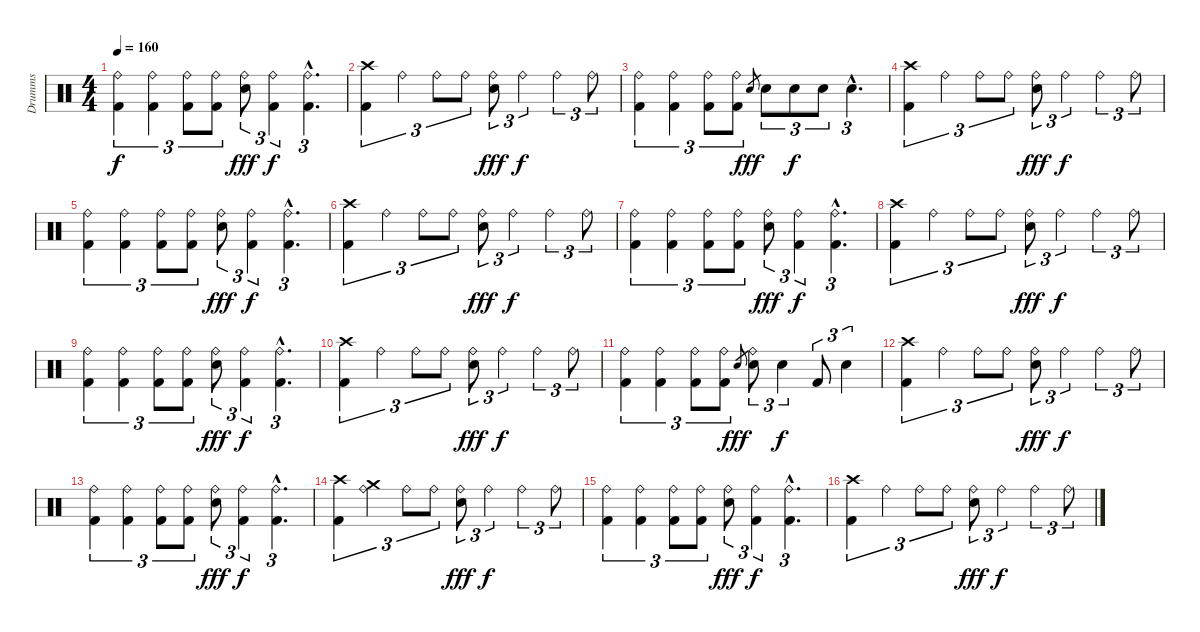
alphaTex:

\track ("Drumms" "Drumms") {instrument percussion}
\staff {score}
\articulation defaults
\ts (4 4)
\tempo 160
\clef neutral
\ks c
("Ride (bell)" "Kick (hit) 2").4{tu (3 2) dy f} ("Ride (bell)" "Kick (hit) 2").4{tu (3 2)} ("Ride (bell)" "Kick (hit) 2").8{tu (3 2)} ("Ride (bell)" "Kick (hit) 2").8{tu (3 2)} ("Ride (bell)" "Snare (hit) 2").8{tu (3 2) dy fff} ("Ride (bell)" "Kick (hit) 2").4{tu (3 2) dy f} ("Ride (bell)" "Kick (hit) 2"{hac}).4{d tu (3 2)} |
("Crash high (hit)" "Kick (hit) 2").4{tu (3 2)} "Ride (bell)".4{tu (3 2)} "Ride (bell)".8{tu (3 2)} "Ride (bell)".8{tu (3 2)} ("Ride (bell)" "Snare (hit) 2").8{tu (3 2) dy fff} "Ride (bell)".4{tu (3 2) dy f} "Ride (bell)".4{tu (3 2)} "Ride (bell)".8{tu (3 2)} |
("Ride (bell)" "Kick (hit) 2").4{tu (3 2)} ("Ride (bell)" "Kick (hit) 2").4{tu (3 2)} ("Ride (bell)" "Kick (hit) 2").8{tu (3 2)} ("Ride (bell)" "Kick (hit) 2").8{tu (3 2)} "Snare (hit) 2".8{gr dy fff} "Snare (hit) 2".8{tu (3 2)} "Snare (hit) 2".8{tu (3 2) dy f} "Snare (hit) 2".8{tu (3 2)} "Snare (hit) 2"{hac}.4{d tu (3 2)} |
\section ("" "")
("Crash high (hit)" "Kick (hit) 2").4{tu (3 2)} "Ride (bell)".4{tu (3 2)} "Ride (bell)".8{tu (3 2)} "Ride (bell)".8{tu (3 2)} ("Ride (bell)" "Snare (hit) 2").8{tu (3 2) dy fff} "Ride (bell)".4{tu (3 2) dy f} "Ride (bell)".4{tu (3 2)} "Ride (bell)".8{tu (3 2)} |
("Ride (bell)" "Kick (hit) 2").4{tu (3 2)} ("Ride (bell)" "Kick (hit) 2").4{tu (3 2)} ("Ride (bell)" "Kick (hit) 2").8{tu (3 2)} ("Ride (bell)" "Kick (hit) 2").8{tu (3 2)} ("Ride (bell)" "Snare (hit) 2").8{tu (3 2) dy fff} ("Ride (bell)" "Kick (hit) 2").4{tu (3 2) dy f} ("Ride (bell)" "Kick (hit) 2"{hac}).4{d tu (3 2)} |
("Crash high (hit)" "Kick (hit) 2").4{tu (3 2)} "Ride (bell)".4{tu (3 2)} "Ride (bell)".8{tu (3 2)} "Ride (bell)".8{tu (3 2)} ("Ride (bell)" "Snare (hit) 2").8{tu (3 2) dy fff} "Ride (bell)".4{tu (3 2) dy f} "Ride (bell)".4{tu (3 2)} "Ride (bell)".8{tu (3 2)} |
("Ride (bell)" "Kick (hit) 2").4{tu (3 2)} ("Ride (bell)" "Kick (hit) 2").4{tu (3 2)} ("Ride (bell)" "Kick (hit) 2").8{tu (3 2)} ("Ride (bell)" "Kick (hit) 2").8{tu (3 2)} ("Ride (bell)" "Snare (hit) 2").8{tu (3 2) dy fff} ("Ride (bell)" "Kick (hit) 2").4{tu (3 2) dy f} ("Ride (bell)" "Kick (hit) 2"{hac}).4{d tu (3 2)} |
("Crash high (hit)" "Kick (hit) 2").4{tu (3 2)} "Ride (bell)".4{tu (3 2)} "Ride (bell)".8{tu (3 2)} "Ride (bell)".8{tu (3 2)} ("Ride (bell)" "Snare (hit) 2").8{tu (3 2) dy fff} "Ride (bell)".4{tu (3 2) dy f} "Ride (bell)".4{tu (3 2)} "Ride (bell)".8{tu (3 2)} |
("Ride (bell)" "Kick (hit) 2").4{tu (3 2)} ("Ride (bell)" "Kick (hit) 2").4{tu (3 2)} ("Ride (bell)" "Kick (hit) 2").8{tu (3 2)} ("Ride (bell)" "Kick (hit) 2").8{tu (3 2)} ("Ride (bell)" "Snare (hit) 2").8{tu (3 2) dy fff} ("Ride (bell)" "Kick (hit) 2").4{tu (3 2) dy f} ("Ride (bell)" "Kick (hit) 2"{hac}).4{d tu (3 2)} |
("Crash high (hit)" "Kick (hit) 2").4{tu (3 2)} "Ride (bell)".4{tu (3 2)} "Ride (bell)".8{tu (3 2)} "Ride (bell)".8{tu (3 2)} ("Ride (bell)" "Snare (hit) 2").8{tu (3 2) dy fff} "Ride (bell)".4{tu (3 2) dy f} "Ride (bell)".4{tu (3 2)} "Ride (bell)".8{tu (3 2)} |
("Ride (bell)" "Kick (hit) 2").4{tu (3 2)} ("Ride (bell)" "Kick (hit) 2").4{tu (3 2)} ("Ride (bell)" "Kick (hit) 2").8{tu (3 2)} ("Ride (bell)" "Kick (hit) 2").8{tu (3 2)} "Snare (hit) 2".8{gr dy fff} ("Ride (bell)" "Snare (hit) 2").8{tu (3 2)} "Snare (hit) 2".4{tu (3 2) dy f} "Kick (hit) 2".8{tu (3 2)} "Snare (hit) 2".4{tu (3 2)} |
("Crash high (hit)" "Kick (hit) 2").4{tu (3 2)} "Ride (bell)".4{tu (3 2)} "Ride (bell)".8{tu (3 2)} "Ride (bell)".8{tu (3 2)} ("Ride (bell)" "Snare (hit) 2").8{tu (3 2) dy fff} "Ride (bell)".4{tu (3 2) dy f} "Ride (bell)".4{tu (3 2)} "Ride (bell)".8{tu (3 2)} |
("Ride (bell)" "Kick (hit) 2").4{tu (3 2)} ("Ride (bell)" "Kick (hit) 2").4{tu (3 2)} ("Ride (bell)" "Kick (hit) 2").8{tu (3 2)} ("Ride (bell)" "Kick (hit) 2").8{tu (3 2)} ("Ride (bell)" "Snare (hit) 2").8{tu (3 2) dy fff} ("Ride (bell)" "Kick (hit) 2").4{tu (3 2) dy f} ("Ride (bell)" "Kick (hit) 2"{hac}).4{d tu (3 2)} |
("Crash high (hit)" "Kick (hit) 2").4{tu (3 2)} ("Ride (bell)" "Crash medium (hit)").4{tu (3 2)} "Ride (bell)".8{tu (3 2)} "Ride (bell)".8{tu (3 2)} ("Ride (bell)" "Snare (hit) 2").8{tu (3 2) dy fff} "Ride (bell)".4{tu (3 2) dy f} "Ride (bell)".4{tu (3 2)} "Ride (bell)".8{tu (3 2)} |
("Ride (bell)" "Kick (hit) 2").4{tu (3 2)} ("Ride (bell)" "Kick (hit) 2").4{tu (3 2)} ("Ride (bell)" "Kick (hit) 2").8{tu (3 2)} ("Ride (bell)" "Kick (hit) 2").8{tu (3 2)} ("Ride (bell)" "Snare (hit) 2").8{tu (3 2) dy fff} ("Ride (bell)" "Kick (hit) 2").4{tu (3 2) dy f} ("Ride (bell)" "Kick (hit) 2"{hac}).4{d tu (3 2)} |
("Crash high (hit)" "Kick (hit) 2").4{tu (3 2)} "Ride (bell)".4{tu (3 2)} "Ride (bell)".8{tu (3 2)} "Ride (bell)".8{tu (3 2)} ("Ride (bell)" "Snare (hit) 2").8{tu (3 2) dy fff} "Ride (bell)".4{tu (3 2) dy f} "Ride (bell)".4{tu (3 2)} "Ride (bell)".8{tu (3 2)}
